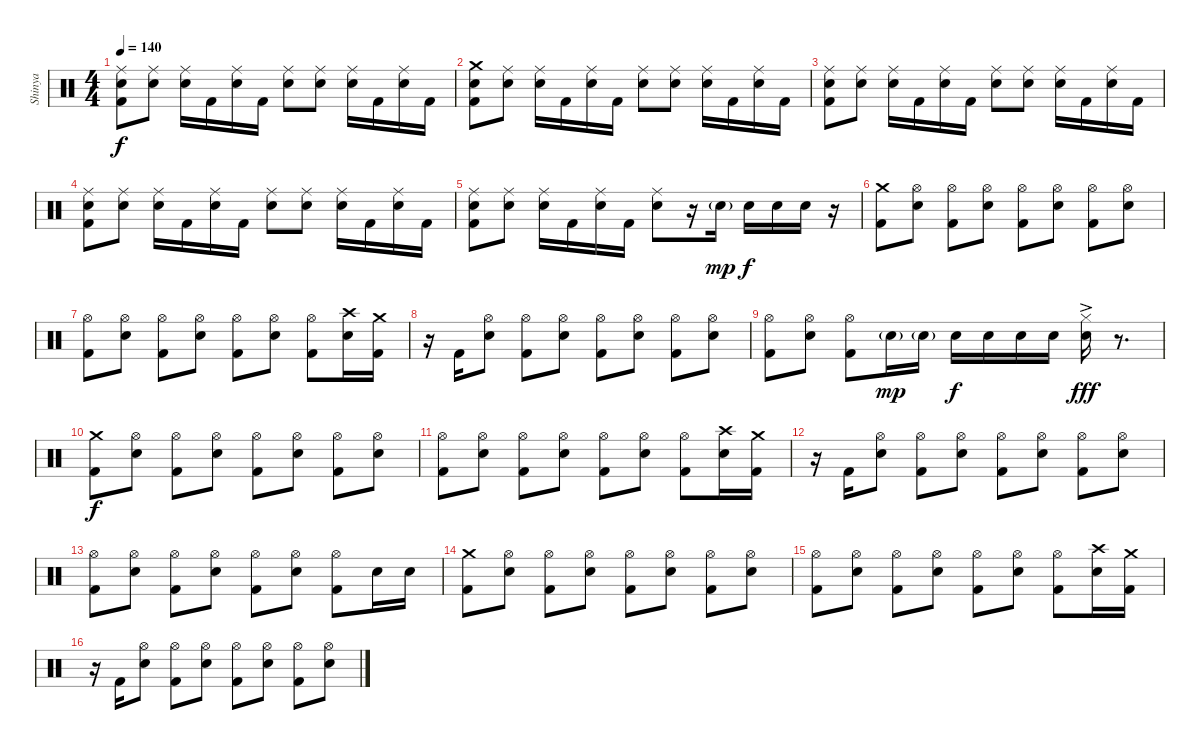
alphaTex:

\track ("Shinya" "Shinya") {instrument percussion}
\staff {score}
\articulation defaults
\ts (4 4)
\tempo 140
\clef neutral
\ks c
("Ride (middle)" "Snare (hit) 2" "Kick (hit) 2").8{dy f} ("Ride (middle)" "Snare (hit) 2").8 ("Ride (middle)" "Snare (hit) 2").16 "Kick (hit) 2".16 ("Ride (middle)" "Snare (hit) 2").16 "Kick (hit) 2".16 ("Ride (middle)" "Snare (hit) 2").8 ("Ride (middle)" "Snare (hit) 2").8 ("Ride (middle)" "Snare (hit) 2").16 "Kick (hit) 2".16 ("Ride (middle)" "Snare (hit) 2").16 "Kick (hit) 2".16 |
("Crash medium (hit)" "Snare (hit) 2" "Kick (hit) 2").8 ("Ride (middle)" "Snare (hit) 2").8 ("Ride (middle)" "Snare (hit) 2").16 "Kick (hit) 2".16 ("Ride (middle)" "Snare (hit) 2").16 "Kick (hit) 2".16 ("Ride (middle)" "Snare (hit) 2").8 ("Ride (middle)" "Snare (hit) 2").8 ("Ride (middle)" "Snare (hit) 2").16 "Kick (hit) 2".16 ("Ride (middle)" "Snare (hit) 2").16 "Kick (hit) 2".16 |
("Ride (middle)" "Snare (hit) 2" "Kick (hit) 2").8 ("Ride (middle)" "Snare (hit) 2").8 ("Ride (middle)" "Snare (hit) 2").16 "Kick (hit) 2".16 ("Ride (middle)" "Snare (hit) 2").16 "Kick (hit) 2".16 ("Ride (middle)" "Snare (hit) 2").8 ("Ride (middle)" "Snare (hit) 2").8 ("Ride (middle)" "Snare (hit) 2").16 "Kick (hit) 2".16 ("Ride (middle)" "Snare (hit) 2").16 "Kick (hit) 2".16 |
("Ride (middle)" "Snare (hit) 2" "Kick (hit) 2").8 ("Ride (middle)" "Snare (hit) 2").8 ("Ride (middle)" "Snare (hit) 2").16 "Kick (hit) 2".16 ("Ride (middle)" "Snare (hit) 2").16 "Kick (hit) 2".16 ("Ride (middle)" "Snare (hit) 2").8 ("Ride (middle)" "Snare (hit) 2").8 ("Ride (middle)" "Snare (hit) 2").16 "Kick (hit) 2".16 ("Ride (middle)" "Snare (hit) 2").16 "Kick (hit) 2".16 |
("Ride (middle)" "Snare (hit) 2" "Kick (hit) 2").8 ("Ride (middle)" "Snare (hit) 2").8 ("Ride (middle)" "Snare (hit) 2").16 "Kick (hit) 2".16 ("Ride (middle)" "Snare (hit) 2").16 "Kick (hit) 2".16 ("Ride (middle)" "Snare (hit) 2").8 r.16 "Snare (hit) 2"{g}.16{dy mp} "Snare (hit) 2".16{dy f} "Snare (hit) 2".16 "Snare (hit) 2".16 r.16 |
("Crash medium (hit)" "Kick (hit) 2").8 ("Hi-Hat (open)" "Snare (hit) 2").8 ("Hi-Hat (open)" "Kick (hit) 2").8 ("Hi-Hat (open)" "Snare (hit) 2").8 ("Hi-Hat (open)" "Kick (hit) 2").8 ("Hi-Hat (open)" "Snare (hit) 2").8 ("Hi-Hat (open)" "Kick (hit) 2").8 ("Hi-Hat (open)" "Snare (hit) 2").8 |
("Hi-Hat (open)" "Kick (hit) 2").8 ("Hi-Hat (open)" "Snare (hit) 2").8 ("Hi-Hat (open)" "Kick (hit) 2").8 ("Hi-Hat (open)" "Snare (hit) 2").8 ("Hi-Hat (open)" "Kick (hit) 2").8 ("Hi-Hat (open)" "Snare (hit) 2").8 ("Hi-Hat (open)" "Kick (hit) 2").8 ("Crash high (hit)" "Snare (hit) 2").16 ("Crash medium (hit)" "Kick (hit) 2").16 |
r.16 "Kick (hit) 2".16 ("Hi-Hat (open)" "Snare (hit) 2").8 ("Hi-Hat (open)" "Kick (hit) 2").8 ("Hi-Hat (open)" "Snare (hit) 2").8 ("Hi-Hat (open)" "Kick (hit) 2").8 ("Hi-Hat (open)" "Snare (hit) 2").8 ("Hi-Hat (open)" "Kick (hit) 2").8 ("Hi-Hat (open)" "Snare (hit) 2").8 |
("Hi-Hat (open)" "Kick (hit) 2").8 ("Hi-Hat (open)" "Snare (hit) 2").8 ("Hi-Hat (open)" "Kick (hit) 2").8 "Snare (hit) 2"{g}.16{dy mp} "Snare (hit) 2"{g}.16 "Snare (hit) 2".16{dy f} "Snare (hit) 2".16 "Snare (hit) 2".16 "Snare (hit) 2".16 ("Hi-Hat (closed)" "Snare (hit) 2"{ac}).16{dy fff} r.8{d} |
("Crash medium (hit)" "Kick (hit) 2").8{dy f} ("Hi-Hat (open)" "Snare (hit) 2").8 ("Hi-Hat (open)" "Kick (hit) 2").8 ("Hi-Hat (open)" "Snare (hit) 2").8 ("Hi-Hat (open)" "Kick (hit) 2").8 ("Hi-Hat (open)" "Snare (hit) 2").8 ("Hi-Hat (open)" "Kick (hit) 2").8 ("Hi-Hat (open)" "Snare (hit) 2").8 |
("Hi-Hat (open)" "Kick (hit) 2").8 ("Hi-Hat (open)" "Snare (hit) 2").8 ("Hi-Hat (open)" "Kick (hit) 2").8 ("Hi-Hat (open)" "Snare (hit) 2").8 ("Hi-Hat (open)" "Kick (hit) 2").8 ("Hi-Hat (open)" "Snare (hit) 2").8 ("Hi-Hat (open)" "Kick (hit) 2").8 ("Crash high (hit)" "Snare (hit) 2").16 ("Crash medium (hit)" "Kick (hit) 2").16 |
r.16 "Kick (hit) 2".16 ("Hi-Hat (open)" "Snare (hit) 2").8 ("Hi-Hat (open)" "Kick (hit) 2").8 ("Hi-Hat (open)" "Snare (hit) 2").8 ("Hi-Hat (open)" "Kick (hit) 2").8 ("Hi-Hat (open)" "Snare (hit) 2").8 ("Hi-Hat (open)" "Kick (hit) 2").8 ("Hi-Hat (open)" "Snare (hit) 2").8 |
("Hi-Hat (open)" "Kick (hit) 2").8 ("Hi-Hat (open)" "Snare (hit) 2").8 ("Hi-Hat (open)" "Kick (hit) 2").8 ("Hi-Hat (open)" "Snare (hit) 2").8 ("Hi-Hat (open)" "Kick (hit) 2").8 ("Hi-Hat (open)" "Snare (hit) 2").8 ("Hi-Hat (open)" "Kick (hit) 2").8 "Snare (hit) 2".16 "Snare (hit) 2".16 |
("Crash medium (hit)" "Kick (hit) 2").8 ("Hi-Hat (open)" "Snare (hit) 2").8 ("Hi-Hat (open)" "Kick (hit) 2").8 ("Hi-Hat (open)" "Snare (hit) 2").8 ("Hi-Hat (open)" "Kick (hit) 2").8 ("Hi-Hat (open)" "Snare (hit) 2").8 ("Hi-Hat (open)" "Kick (hit) 2").8 ("Hi-Hat (open)" "Snare (hit) 2").8 |
("Hi-Hat (open)" "Kick (hit) 2").8 ("Hi-Hat (open)" "Snare (hit) 2").8 ("Hi-Hat (open)" "Kick (hit) 2").8 ("Hi-Hat (open)" "Snare (hit) 2").8 ("Hi-Hat (open)" "Kick (hit) 2").8 ("Hi-Hat (open)" "Snare (hit) 2").8 ("Hi-Hat (open)" "Kick (hit) 2").8 ("Crash high (hit)" "Snare (hit) 2").16 ("Crash medium (hit)" "Kick (hit) 2").16 |
r.16 "Kick (hit) 2".16 ("Hi-Hat (open)" "Snare (hit) 2").8 ("Hi-Hat (open)" "Kick (hit) 2").8 ("Hi-Hat (open)" "Snare (hit) 2").8 ("Hi-Hat (open)" "Kick (hit) 2").8 ("Hi-Hat (open)" "Snare (hit) 2").8 ("Hi-Hat (open)" "Kick (hit) 2").8 ("Hi-Hat (open)" "Snare (hit) 2").8
